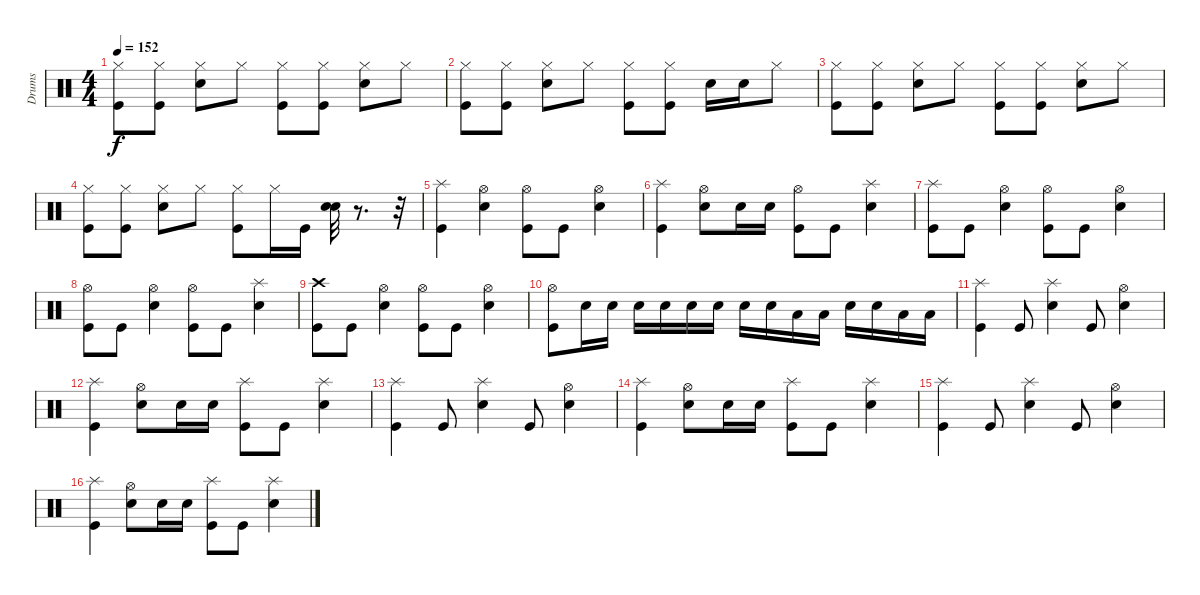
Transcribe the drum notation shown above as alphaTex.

\track ("Drums" "Drums") {instrument percussion}
\staff {score}
\articulation defaults
\ts (4 4)
\tempo 152
\clef neutral
\ks c
("Hi-Hat (closed)" "Kick (hit)").8{dy f} ("Hi-Hat (closed)" "Kick (hit)").8 ("Hi-Hat (closed)" "Snare (hit) 2").8 "Hi-Hat (closed)".8 ("Hi-Hat (closed)" "Kick (hit)").8 ("Hi-Hat (closed)" "Kick (hit)").8 ("Hi-Hat (closed)" "Snare (hit) 2").8 "Hi-Hat (closed)".8 |
("Hi-Hat (closed)" "Kick (hit)").8 ("Hi-Hat (closed)" "Kick (hit)").8 ("Hi-Hat (closed)" "Snare (hit) 2").8 "Hi-Hat (closed)".8 ("Hi-Hat (closed)" "Kick (hit)").8 ("Hi-Hat (closed)" "Kick (hit)").8 "Snare (hit) 2".16 "Snare (hit) 2".16 "Hi-Hat (closed)".8 |
("Hi-Hat (closed)" "Kick (hit)").8 ("Hi-Hat (closed)" "Kick (hit)").8 ("Hi-Hat (closed)" "Snare (hit) 2").8 "Hi-Hat (closed)".8 ("Hi-Hat (closed)" "Kick (hit)").8 ("Hi-Hat (closed)" "Kick (hit)").8 ("Hi-Hat (closed)" "Snare (hit) 2").8 "Hi-Hat (closed)".8 |
("Hi-Hat (closed)" "Kick (hit)").8 ("Hi-Hat (closed)" "Kick (hit)").8 ("Hi-Hat (closed)" "Snare (hit) 2").8 "Hi-Hat (closed)".8 ("Hi-Hat (closed)" "Kick (hit)").8 "Hi-Hat (closed)".16 "Kick (hit)".16 ("Snare (hit) 2" "Snare (hit) 2").32 r.8{d} r.32 |
("Splash (hit)" "Kick (hit)").4 ("Hi-Hat (open)" "Snare (hit) 2").4 ("Hi-Hat (open)" "Kick (hit)").8 "Kick (hit)".8 ("Hi-Hat (open)" "Snare (hit) 2").4 |
("Splash (hit)" "Kick (hit)").4 ("Hi-Hat (open)" "Snare (hit) 2").8 "Snare (hit) 2".16 "Snare (hit) 2".16 ("Hi-Hat (open)" "Kick (hit)").8 "Kick (hit)".8 ("Splash (hit)" "Snare (hit) 2").4 |
("Splash (hit)" "Kick (hit)").8 "Kick (hit)".8 ("Hi-Hat (open)" "Snare (hit) 2").4 ("Hi-Hat (open)" "Kick (hit)").8 "Kick (hit)".8 ("Hi-Hat (open)" "Snare (hit) 2").4 |
("Hi-Hat (open)" "Kick (hit)").8 "Kick (hit)".8 ("Hi-Hat (open)" "Snare (hit) 2").4 ("Hi-Hat (open)" "Kick (hit)").8 "Kick (hit)".8 ("Splash (hit)" "Snare (hit) 2").4 |
("Crash high (hit)" "Kick (hit)").8 "Kick (hit)".8 ("Hi-Hat (open)" "Snare (hit) 2").4 ("Hi-Hat (open)" "Kick (hit)").8 "Kick (hit)".8 ("Hi-Hat (open)" "Snare (hit) 2").4 |
("Hi-Hat (open)" "Kick (hit)").8 "Snare (hit) 2".16 "Snare (hit) 2".16 "Snare (hit) 2".16 "Snare (hit) 2".16 "Snare (hit) 2".16 "Snare (hit) 2".16 "Snare (hit) 2".16 "Snare (hit) 2".16 "Low Tom (hit)".16 "Low Tom (hit)".16 "Snare (hit) 2".16 "Snare (hit) 2".16 "Low Tom (hit)".16 "Low Tom (hit)".16 |
("Splash (hit)" "Kick (hit)").4 "Kick (hit)".8 ("Splash (hit)" "Snare (hit) 2").4 "Kick (hit)".8 ("Hi-Hat (open)" "Snare (hit) 2").4 |
("Splash (hit)" "Kick (hit)").4 ("Hi-Hat (open)" "Snare (hit) 2").8 "Snare (hit) 2".16 "Snare (hit) 2".16 ("Splash (hit)" "Kick (hit)").8 "Kick (hit)".8 ("Splash (hit)" "Snare (hit) 2").4 |
("Splash (hit)" "Kick (hit)").4 "Kick (hit)".8 ("Splash (hit)" "Snare (hit) 2").4 "Kick (hit)".8 ("Hi-Hat (open)" "Snare (hit) 2").4 |
("Splash (hit)" "Kick (hit)").4 ("Hi-Hat (open)" "Snare (hit) 2").8 "Snare (hit) 2".16 "Snare (hit) 2".16 ("Splash (hit)" "Kick (hit)").8 "Kick (hit)".8 ("Splash (hit)" "Snare (hit) 2").4 |
("Splash (hit)" "Kick (hit)").4 "Kick (hit)".8 ("Splash (hit)" "Snare (hit) 2").4 "Kick (hit)".8 ("Hi-Hat (open)" "Snare (hit) 2").4 |
("Splash (hit)" "Kick (hit)").4 ("Hi-Hat (open)" "Snare (hit) 2").8 "Snare (hit) 2".16 "Snare (hit) 2".16 ("Splash (hit)" "Kick (hit)").8 "Kick (hit)".8 ("Splash (hit)" "Snare (hit) 2").4
